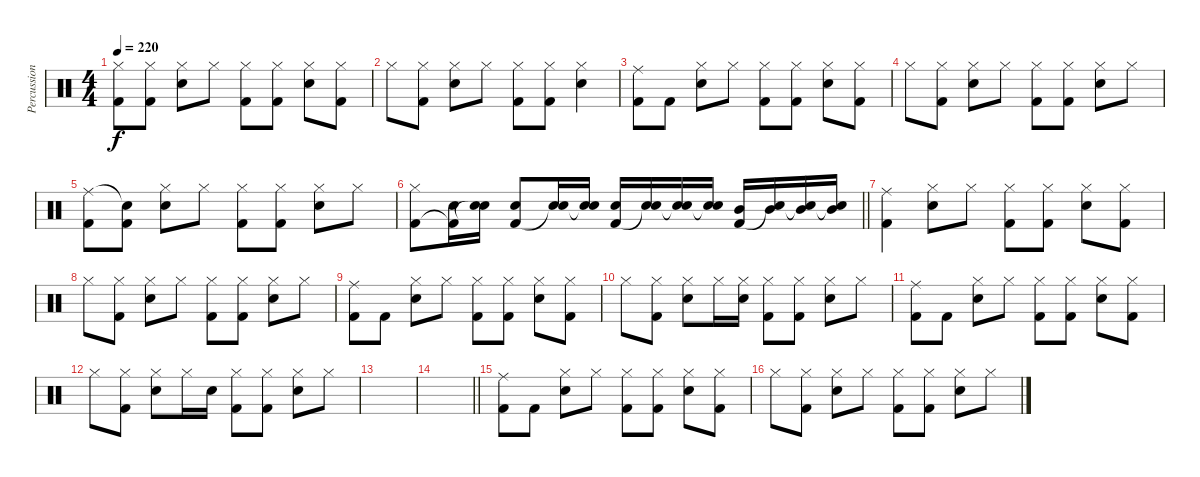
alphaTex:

\track ("Percussion" "Percussion") {instrument percussion}
\staff {score}
\articulation defaults
\ts (4 4)
\tempo 220
\clef neutral
\ks c
("Hi-Hat (closed)" "Kick (hit) 2").8{dy f} ("Hi-Hat (closed)" "Kick (hit) 2").8 ("Hi-Hat (closed)" "Electric Snare (hit)").8 "Hi-Hat (closed)".8 ("Hi-Hat (closed)" "Kick (hit) 2").8 ("Hi-Hat (closed)" "Kick (hit) 2").8 ("Hi-Hat (closed)" "Electric Snare (hit)").8 ("Hi-Hat (closed)" "Kick (hit) 2").8 |
"Hi-Hat (closed)".8 ("Hi-Hat (closed)" "Kick (hit) 2").8 ("Hi-Hat (closed)" "Electric Snare (hit)").8 "Hi-Hat (closed)".8 ("Hi-Hat (closed)" "Kick (hit) 2").8 ("Hi-Hat (closed)" "Kick (hit) 2").8 ("Hi-Hat (closed)" "Electric Snare (hit)").4 |
("Ride (middle)" "Kick (hit) 2").8 "Kick (hit) 2".8 ("Hi-Hat (closed)" "Electric Snare (hit)").8 "Hi-Hat (closed)".8 ("Hi-Hat (closed)" "Kick (hit) 2").8 ("Hi-Hat (closed)" "Kick (hit) 2").8 ("Hi-Hat (closed)" "Electric Snare (hit)").8 ("Hi-Hat (closed)" "Kick (hit) 2").8 |
"Hi-Hat (closed)".8 ("Hi-Hat (closed)" "Kick (hit) 2").8 ("Hi-Hat (closed)" "Electric Snare (hit)").8 "Hi-Hat (closed)".8 ("Hi-Hat (closed)" "Kick (hit) 2").8 ("Hi-Hat (closed)" "Kick (hit) 2").8 ("Hi-Hat (closed)" "Electric Snare (hit)").8 "Hi-Hat (closed)".8 |
("Ride (middle)" "Kick (hit) 2").8 ("Snare (hit)"{t} "Kick (hit) 2").8 ("Hi-Hat (closed)" "Electric Snare (hit)").8 "Hi-Hat (closed)".8 ("Hi-Hat (closed)" "Kick (hit) 2").8 ("Hi-Hat (closed)" "Kick (hit) 2").8 ("Hi-Hat (closed)" "Electric Snare (hit)").8 "Hi-Hat (closed)".8 |
\barLineRight lightlight
("Hi-Hat (closed)" "Kick (hit) 2").8 ("Electric Snare (hit)" "Kick (hit) 2"{t}).16 ("Electric Snare (hit)" "Snare (hit)"{t}).16 ("Electric Snare (hit)" "Kick (hit) 2").8 ("Electric Snare (hit)" "Snare (hit)"{t}).16 ("Electric Snare (hit)" "Snare (hit)"{t}).16 ("Electric Snare (hit)" "Kick (hit) 2").16 ("Electric Snare (hit)" "Snare (hit)"{t}).16 ("Electric Snare (hit)" "Snare (hit)"{t}).16 ("Electric Snare (hit)" "Snare (hit)"{t}).16 ("Mid Tom (hit)" "Kick (hit) 2").16 ("Mid Tom (hit)" "Snare (hit)"{t}).16 ("Mid Tom (hit)" "Snare (hit)"{t}).16 ("Mid Tom (hit)" "Snare (hit)"{t}).16 |
("Ride (middle)" "Kick (hit) 2").4 ("Hi-Hat (closed)" "Electric Snare (hit)").8 "Hi-Hat (closed)".8 ("Hi-Hat (closed)" "Kick (hit) 2").8 ("Hi-Hat (closed)" "Kick (hit) 2").8 ("Hi-Hat (closed)" "Electric Snare (hit)").8 ("Hi-Hat (closed)" "Kick (hit) 2").8 |
"Hi-Hat (closed)".8 ("Hi-Hat (closed)" "Kick (hit) 2").8 ("Hi-Hat (closed)" "Electric Snare (hit)").8 "Hi-Hat (closed)".8 ("Hi-Hat (closed)" "Kick (hit) 2").8 ("Hi-Hat (closed)" "Kick (hit) 2").8 ("Hi-Hat (closed)" "Electric Snare (hit)").8 "Hi-Hat (closed)".8 |
("Ride (middle)" "Kick (hit) 2").8 "Kick (hit) 2".8 ("Hi-Hat (closed)" "Electric Snare (hit)").8 "Hi-Hat (closed)".8 ("Hi-Hat (closed)" "Kick (hit) 2").8 ("Hi-Hat (closed)" "Kick (hit) 2").8 ("Hi-Hat (closed)" "Electric Snare (hit)").8 ("Hi-Hat (closed)" "Kick (hit) 2").8 |
"Hi-Hat (closed)".8 ("Hi-Hat (closed)" "Kick (hit) 2").8 ("Hi-Hat (closed)" "Electric Snare (hit)").8 "Hi-Hat (closed)".16 ("Hi-Hat (closed)" "Electric Snare (hit)").16 ("Hi-Hat (closed)" "Kick (hit) 2").8 ("Hi-Hat (closed)" "Kick (hit) 2").8 ("Hi-Hat (closed)" "Electric Snare (hit)").8 "Hi-Hat (closed)".8 |
("Ride (middle)" "Kick (hit) 2").8 "Kick (hit) 2".8 ("Hi-Hat (closed)" "Electric Snare (hit)").8 "Hi-Hat (closed)".8 ("Hi-Hat (closed)" "Kick (hit) 2").8 ("Hi-Hat (closed)" "Kick (hit) 2").8 ("Hi-Hat (closed)" "Electric Snare (hit)").8 ("Hi-Hat (closed)" "Kick (hit) 2").8 |
"Hi-Hat (closed)".8 ("Hi-Hat (closed)" "Kick (hit) 2").8 ("Hi-Hat (closed)" "Electric Snare (hit)").8 "Hi-Hat (closed)".16 "Electric Snare (hit)".16 ("Hi-Hat (closed)" "Kick (hit) 2").8 ("Hi-Hat (closed)" "Kick (hit) 2").8 ("Hi-Hat (closed)" "Electric Snare (hit)").8 "Hi-Hat (closed)".8 |
|
\barLineRight lightlight
|
("Ride (middle)" "Kick (hit) 2").8 "Kick (hit) 2".8 ("Hi-Hat (closed)" "Electric Snare (hit)").8 "Hi-Hat (closed)".8 ("Hi-Hat (closed)" "Kick (hit) 2").8 ("Hi-Hat (closed)" "Kick (hit) 2").8 ("Hi-Hat (closed)" "Electric Snare (hit)").8 ("Hi-Hat (closed)" "Kick (hit) 2").8 |
"Hi-Hat (closed)".8 ("Hi-Hat (closed)" "Kick (hit) 2").8 ("Hi-Hat (closed)" "Electric Snare (hit)").8 "Hi-Hat (closed)".8 ("Hi-Hat (closed)" "Kick (hit) 2").8 ("Hi-Hat (closed)" "Kick (hit) 2").8 ("Hi-Hat (closed)" "Electric Snare (hit)").8 "Hi-Hat (closed)".8
